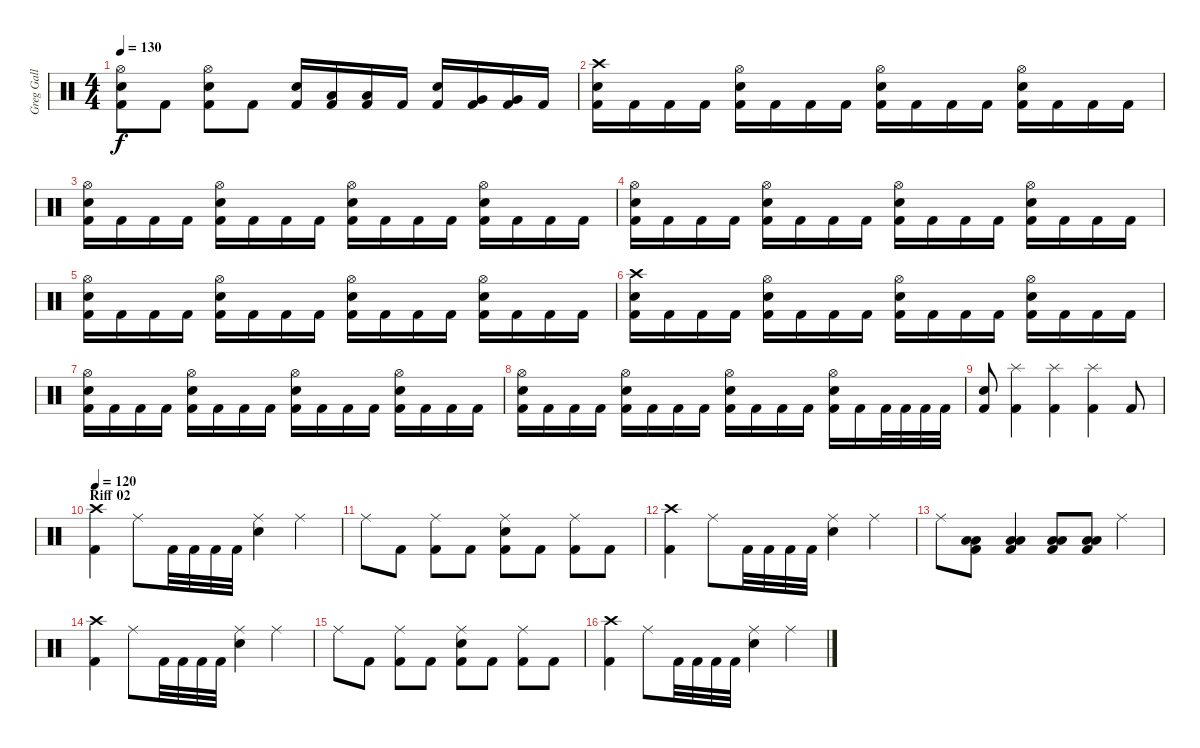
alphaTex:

\track ("Greg Gall" "Greg Gall") {instrument percussion}
\staff {score}
\articulation defaults
\ts (4 4)
\tempo 130
\clef neutral
\ks c
("Hi-Hat (open)" "Electric Snare (hit)" "Kick (hit) 2").8{dy f} "Kick (hit) 2".8 ("Hi-Hat (open)" "Electric Snare (hit)" "Kick (hit) 2").8 "Kick (hit) 2".8 ("Electric Snare (hit)" "Kick (hit) 2").16 ("Low Tom (hit)" "Kick (hit) 2").16 ("Low Tom (hit)" "Kick (hit) 2").16 "Kick (hit) 2".16 ("Electric Snare (hit)" "Kick (hit) 2").16 ("Very Low Tom (hit)" "Kick (hit) 2").16 ("Very Low Tom (hit)" "Kick (hit) 2").16 "Kick (hit) 2".16 |
("Crash high (hit)" "Electric Snare (hit)" "Kick (hit) 2").16 "Kick (hit) 2".16 "Kick (hit) 2".16 "Kick (hit) 2".16 ("Hi-Hat (open)" "Electric Snare (hit)" "Kick (hit) 2").16 "Kick (hit) 2".16 "Kick (hit) 2".16 "Kick (hit) 2".16 ("Hi-Hat (open)" "Electric Snare (hit)" "Kick (hit) 2").16 "Kick (hit) 2".16 "Kick (hit) 2".16 "Kick (hit) 2".16 ("Hi-Hat (open)" "Electric Snare (hit)" "Kick (hit) 2").16 "Kick (hit) 2".16 "Kick (hit) 2".16 "Kick (hit) 2".16 |
("Hi-Hat (open)" "Electric Snare (hit)" "Kick (hit) 2").16 "Kick (hit) 2".16 "Kick (hit) 2".16 "Kick (hit) 2".16 ("Hi-Hat (open)" "Electric Snare (hit)" "Kick (hit) 2").16 "Kick (hit) 2".16 "Kick (hit) 2".16 "Kick (hit) 2".16 ("Hi-Hat (open)" "Electric Snare (hit)" "Kick (hit) 2").16 "Kick (hit) 2".16 "Kick (hit) 2".16 "Kick (hit) 2".16 ("Hi-Hat (open)" "Electric Snare (hit)" "Kick (hit) 2").16 "Kick (hit) 2".16 "Kick (hit) 2".16 "Kick (hit) 2".16 |
("Hi-Hat (open)" "Electric Snare (hit)" "Kick (hit) 2").16 "Kick (hit) 2".16 "Kick (hit) 2".16 "Kick (hit) 2".16 ("Hi-Hat (open)" "Electric Snare (hit)" "Kick (hit) 2").16 "Kick (hit) 2".16 "Kick (hit) 2".16 "Kick (hit) 2".16 ("Hi-Hat (open)" "Electric Snare (hit)" "Kick (hit) 2").16 "Kick (hit) 2".16 "Kick (hit) 2".16 "Kick (hit) 2".16 ("Hi-Hat (open)" "Electric Snare (hit)" "Kick (hit) 2").16 "Kick (hit) 2".16 "Kick (hit) 2".16 "Kick (hit) 2".16 |
("Hi-Hat (open)" "Electric Snare (hit)" "Kick (hit) 2").16 "Kick (hit) 2".16 "Kick (hit) 2".16 "Kick (hit) 2".16 ("Hi-Hat (open)" "Electric Snare (hit)" "Kick (hit) 2").16 "Kick (hit) 2".16 "Kick (hit) 2".16 "Kick (hit) 2".16 ("Hi-Hat (open)" "Electric Snare (hit)" "Kick (hit) 2").16 "Kick (hit) 2".16 "Kick (hit) 2".16 "Kick (hit) 2".16 ("Hi-Hat (open)" "Electric Snare (hit)" "Kick (hit) 2").16 "Kick (hit) 2".16 "Kick (hit) 2".16 "Kick (hit) 2".16 |
("Crash high (hit)" "Electric Snare (hit)" "Kick (hit) 2").16 "Kick (hit) 2".16 "Kick (hit) 2".16 "Kick (hit) 2".16 ("Hi-Hat (open)" "Electric Snare (hit)" "Kick (hit) 2").16 "Kick (hit) 2".16 "Kick (hit) 2".16 "Kick (hit) 2".16 ("Hi-Hat (open)" "Electric Snare (hit)" "Kick (hit) 2").16 "Kick (hit) 2".16 "Kick (hit) 2".16 "Kick (hit) 2".16 ("Hi-Hat (open)" "Electric Snare (hit)" "Kick (hit) 2").16 "Kick (hit) 2".16 "Kick (hit) 2".16 "Kick (hit) 2".16 |
("Hi-Hat (open)" "Electric Snare (hit)" "Kick (hit) 2").16 "Kick (hit) 2".16 "Kick (hit) 2".16 "Kick (hit) 2".16 ("Hi-Hat (open)" "Electric Snare (hit)" "Kick (hit) 2").16 "Kick (hit) 2".16 "Kick (hit) 2".16 "Kick (hit) 2".16 ("Hi-Hat (open)" "Electric Snare (hit)" "Kick (hit) 2").16 "Kick (hit) 2".16 "Kick (hit) 2".16 "Kick (hit) 2".16 ("Hi-Hat (open)" "Electric Snare (hit)" "Kick (hit) 2").16 "Kick (hit) 2".16 "Kick (hit) 2".16 "Kick (hit) 2".16 |
("Hi-Hat (open)" "Electric Snare (hit)" "Kick (hit) 2").16 "Kick (hit) 2".16 "Kick (hit) 2".16 "Kick (hit) 2".16 ("Hi-Hat (open)" "Electric Snare (hit)" "Kick (hit) 2").16 "Kick (hit) 2".16 "Kick (hit) 2".16 "Kick (hit) 2".16 ("Hi-Hat (open)" "Electric Snare (hit)" "Kick (hit) 2").16 "Kick (hit) 2".16 "Kick (hit) 2".16 "Kick (hit) 2".16 ("Hi-Hat (open)" "Electric Snare (hit)" "Kick (hit) 2").16 "Kick (hit) 2".16 "Kick (hit) 2".32 "Kick (hit) 2".32 "Kick (hit) 2".32 "Kick (hit) 2".32 |
("Electric Snare (hit)" "Kick (hit) 2").8 ("Splash (hit)" "Kick (hit) 2").4 ("Splash (hit)" "Kick (hit) 2").4 ("Splash (hit)" "Kick (hit) 2").4 "Kick (hit) 2".8 |
\section ("" "Riff 02")
\tempo 120
("Crash high (hit)" "Kick (hit) 2").4 "Ride (middle)".8 "Kick (hit) 2".32 "Kick (hit) 2".32 "Kick (hit) 2".32 "Kick (hit) 2".32 ("Ride (middle)" "Electric Snare (hit)").4 "Ride (middle)".4 |
"Ride (middle)".8 "Kick (hit) 2".8 ("Ride (middle)" "Kick (hit) 2").8 "Kick (hit) 2".8 ("Ride (middle)" "Electric Snare (hit)" "Kick (hit) 2").8 "Kick (hit) 2".8 ("Ride (middle)" "Kick (hit) 2").8 "Kick (hit) 2".8 |
("Crash high (hit)" "Kick (hit) 2").4 "Ride (middle)".8 "Kick (hit) 2".32 "Kick (hit) 2".32 "Kick (hit) 2".32 "Kick (hit) 2".32 ("Ride (middle)" "Electric Snare (hit)").4 "Ride (middle)".4 |
"Ride (middle)".8 ("Low Floor Tom (hit)" "Low Floor Tom (hit)" "Kick (hit) 2").8 ("Low Floor Tom (hit)" "Low Floor Tom (hit)" "Kick (hit) 2").4 ("Low Floor Tom (hit)" "Low Floor Tom (hit)" "Kick (hit) 2").8 ("Low Floor Tom (hit)" "Low Floor Tom (hit)" "Kick (hit) 2").8 "Ride (middle)".4 |
("Crash high (hit)" "Kick (hit) 2").4 "Ride (middle)".8 "Kick (hit) 2".32 "Kick (hit) 2".32 "Kick (hit) 2".32 "Kick (hit) 2".32 ("Ride (middle)" "Electric Snare (hit)").4 "Ride (middle)".4 |
"Ride (middle)".8 "Kick (hit) 2".8 ("Ride (middle)" "Kick (hit) 2").8 "Kick (hit) 2".8 ("Ride (middle)" "Electric Snare (hit)" "Kick (hit) 2").8 "Kick (hit) 2".8 ("Ride (middle)" "Kick (hit) 2").8 "Kick (hit) 2".8 |
("Crash high (hit)" "Kick (hit) 2").4 "Ride (middle)".8 "Kick (hit) 2".32 "Kick (hit) 2".32 "Kick (hit) 2".32 "Kick (hit) 2".32 ("Ride (middle)" "Electric Snare (hit)").4 "Ride (middle)".4
